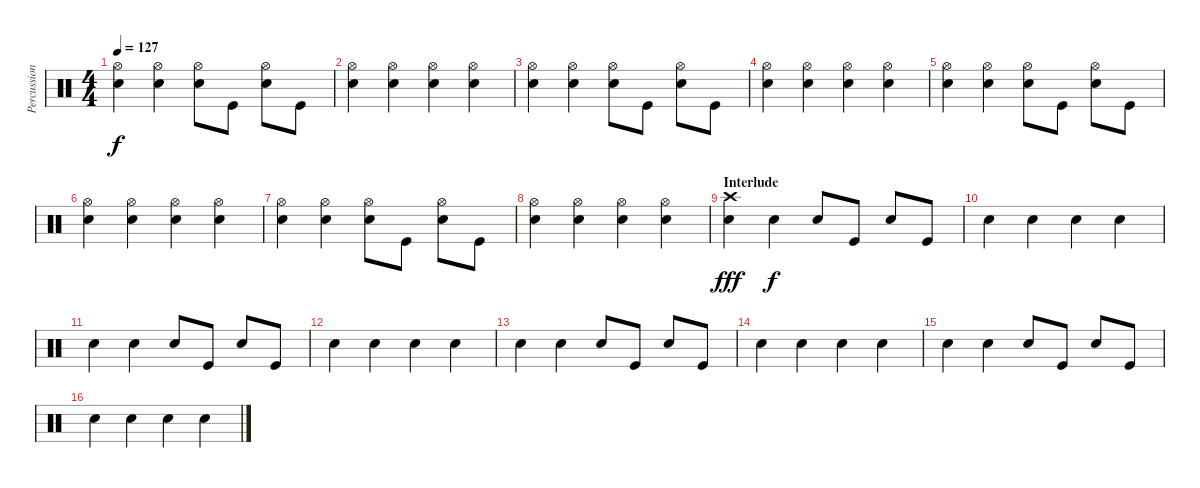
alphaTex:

\track ("Percussion" "Percussion") {instrument percussion}
\staff {score}
\articulation defaults
\ts (4 4)
\tempo 127
\clef neutral
\ks c
("Hi-Hat (open)" "Electric Snare (hit)").4{dy f} ("Hi-Hat (open)" "Electric Snare (hit)").4 ("Hi-Hat (open)" "Electric Snare (hit)").8 "Kick (hit)".8 ("Hi-Hat (open)" "Electric Snare (hit)").8 "Kick (hit)".8 |
("Hi-Hat (open)" "Electric Snare (hit)").4 ("Hi-Hat (open)" "Electric Snare (hit)").4 ("Hi-Hat (open)" "Electric Snare (hit)").4 ("Hi-Hat (open)" "Electric Snare (hit)").4 |
("Hi-Hat (open)" "Electric Snare (hit)").4 ("Hi-Hat (open)" "Electric Snare (hit)").4 ("Hi-Hat (open)" "Electric Snare (hit)").8 "Kick (hit)".8 ("Hi-Hat (open)" "Electric Snare (hit)").8 "Kick (hit)".8 |
("Hi-Hat (open)" "Electric Snare (hit)").4 ("Hi-Hat (open)" "Electric Snare (hit)").4 ("Hi-Hat (open)" "Electric Snare (hit)").4 ("Hi-Hat (open)" "Electric Snare (hit)").4 |
("Hi-Hat (open)" "Electric Snare (hit)").4 ("Hi-Hat (open)" "Electric Snare (hit)").4 ("Hi-Hat (open)" "Electric Snare (hit)").8 "Kick (hit)".8 ("Hi-Hat (open)" "Electric Snare (hit)").8 "Kick (hit)".8 |
("Hi-Hat (open)" "Electric Snare (hit)").4 ("Hi-Hat (open)" "Electric Snare (hit)").4 ("Hi-Hat (open)" "Electric Snare (hit)").4 ("Hi-Hat (open)" "Electric Snare (hit)").4 |
("Hi-Hat (open)" "Electric Snare (hit)").4 ("Hi-Hat (open)" "Electric Snare (hit)").4 ("Hi-Hat (open)" "Electric Snare (hit)").8 "Kick (hit)".8 ("Hi-Hat (open)" "Electric Snare (hit)").8 "Kick (hit)".8 |
("Hi-Hat (open)" "Electric Snare (hit)").4 ("Hi-Hat (open)" "Electric Snare (hit)").4 ("Hi-Hat (open)" "Electric Snare (hit)").4 ("Hi-Hat (open)" "Electric Snare (hit)").4 |
\section ("" "Interlude")
("Electric Snare (hit)" "Crash high (hit)").4{dy fff} "Electric Snare (hit)".4{dy f} "Electric Snare (hit)".8 "Kick (hit)".8 "Electric Snare (hit)".8 "Kick (hit)".8 |
"Electric Snare (hit)".4 "Electric Snare (hit)".4 "Electric Snare (hit)".4 "Electric Snare (hit)".4 |
"Electric Snare (hit)".4 "Electric Snare (hit)".4 "Electric Snare (hit)".8 "Kick (hit)".8 "Electric Snare (hit)".8 "Kick (hit)".8 |
"Electric Snare (hit)".4 "Electric Snare (hit)".4 "Electric Snare (hit)".4 "Electric Snare (hit)".4 |
"Electric Snare (hit)".4 "Electric Snare (hit)".4 "Electric Snare (hit)".8 "Kick (hit)".8 "Electric Snare (hit)".8 "Kick (hit)".8 |
"Electric Snare (hit)".4 "Electric Snare (hit)".4 "Electric Snare (hit)".4 "Electric Snare (hit)".4 |
"Electric Snare (hit)".4 "Electric Snare (hit)".4 "Electric Snare (hit)".8 "Kick (hit)".8 "Electric Snare (hit)".8 "Kick (hit)".8 |
"Electric Snare (hit)".4 "Electric Snare (hit)".4 "Electric Snare (hit)".4 "Electric Snare (hit)".4
